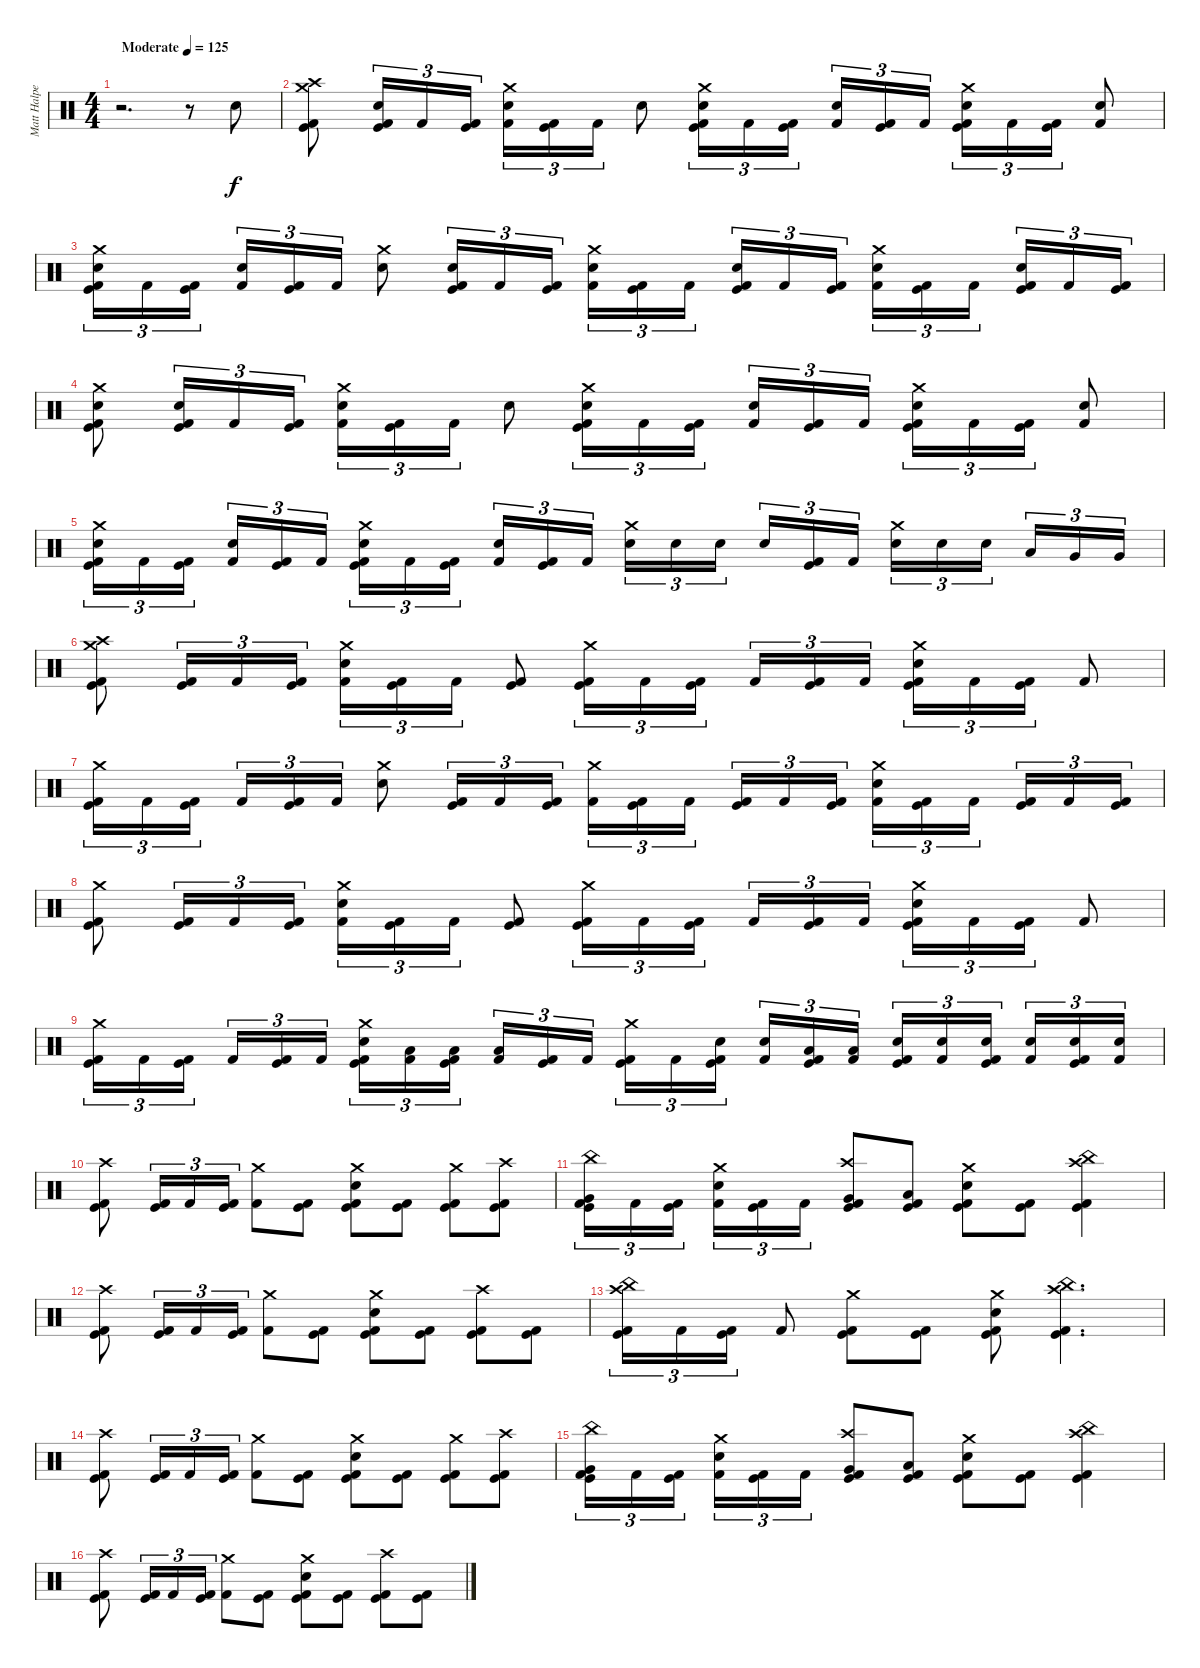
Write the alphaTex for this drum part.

\track ("Matt Halpern" "Matt Halpe") {instrument percussion}
\staff {score}
\articulation defaults
\ts (4 4)
\tempo (125 "Moderate")
\clef neutral
\ks c
r.2{d dy f} r.8 "Electric Snare (hit)".8 |
("Kick (hit) 2" "Kick (hit)" "Crash high (hit)" "Crash medium (hit)").8 ("Kick (hit) 2" "Kick (hit)" "Electric Snare (hit)").16{tu (3 2)} "Kick (hit) 2".16{tu (3 2)} ("Kick (hit) 2" "Kick (hit)").16{tu (3 2)} ("Kick (hit) 2" "Electric Snare (hit)" "Crash medium (hit)").16{tu (3 2)} ("Kick (hit) 2" "Kick (hit)").16{tu (3 2)} "Kick (hit) 2".16{tu (3 2)} "Electric Snare (hit)".8 ("Kick (hit) 2" "Kick (hit)" "Electric Snare (hit)" "Crash medium (hit)").16{tu (3 2)} "Kick (hit) 2".16{tu (3 2)} ("Kick (hit) 2" "Kick (hit)").16{tu (3 2) beam splitsecondary} ("Kick (hit) 2" "Electric Snare (hit)").16{tu (3 2)} ("Kick (hit) 2" "Kick (hit)").16{tu (3 2)} "Kick (hit) 2".16{tu (3 2)} ("Kick (hit) 2" "Kick (hit)" "Electric Snare (hit)" "Crash medium (hit)").16{tu (3 2)} "Kick (hit) 2".16{tu (3 2)} ("Kick (hit) 2" "Kick (hit)").16{tu (3 2)} ("Kick (hit) 2" "Electric Snare (hit)").8 |
("Kick (hit) 2" "Kick (hit)" "Electric Snare (hit)" "Crash medium (hit)").16{tu (3 2)} "Kick (hit) 2".16{tu (3 2)} ("Kick (hit) 2" "Kick (hit)").16{tu (3 2) beam splitsecondary} ("Kick (hit) 2" "Electric Snare (hit)").16{tu (3 2)} ("Kick (hit) 2" "Kick (hit)").16{tu (3 2)} "Kick (hit) 2".16{tu (3 2)} ("Electric Snare (hit)" "Crash medium (hit)").8 ("Kick (hit) 2" "Kick (hit)" "Electric Snare (hit)").16{tu (3 2)} "Kick (hit) 2".16{tu (3 2)} ("Kick (hit) 2" "Kick (hit)").16{tu (3 2)} ("Kick (hit) 2" "Electric Snare (hit)" "Crash medium (hit)").16{tu (3 2)} ("Kick (hit) 2" "Kick (hit)").16{tu (3 2)} "Kick (hit) 2".16{tu (3 2) beam splitsecondary} ("Kick (hit) 2" "Kick (hit)" "Electric Snare (hit)").16{tu (3 2)} "Kick (hit) 2".16{tu (3 2)} ("Kick (hit) 2" "Kick (hit)").16{tu (3 2)} ("Kick (hit) 2" "Electric Snare (hit)" "Crash medium (hit)").16{tu (3 2)} ("Kick (hit) 2" "Kick (hit)").16{tu (3 2)} "Kick (hit) 2".16{tu (3 2) beam splitsecondary} ("Kick (hit) 2" "Kick (hit)" "Electric Snare (hit)").16{tu (3 2)} "Kick (hit) 2".16{tu (3 2)} ("Kick (hit) 2" "Kick (hit)").16{tu (3 2)} |
("Kick (hit) 2" "Kick (hit)" "Electric Snare (hit)" "Crash medium (hit)").8 ("Kick (hit) 2" "Kick (hit)" "Electric Snare (hit)").16{tu (3 2)} "Kick (hit) 2".16{tu (3 2)} ("Kick (hit) 2" "Kick (hit)").16{tu (3 2)} ("Kick (hit) 2" "Electric Snare (hit)" "Crash medium (hit)").16{tu (3 2)} ("Kick (hit) 2" "Kick (hit)").16{tu (3 2)} "Kick (hit) 2".16{tu (3 2)} "Electric Snare (hit)".8 ("Kick (hit) 2" "Kick (hit)" "Electric Snare (hit)" "Crash medium (hit)").16{tu (3 2)} "Kick (hit) 2".16{tu (3 2)} ("Kick (hit) 2" "Kick (hit)").16{tu (3 2) beam splitsecondary} ("Kick (hit) 2" "Electric Snare (hit)").16{tu (3 2)} ("Kick (hit) 2" "Kick (hit)").16{tu (3 2)} "Kick (hit) 2".16{tu (3 2)} ("Kick (hit) 2" "Kick (hit)" "Electric Snare (hit)" "Crash medium (hit)").16{tu (3 2)} "Kick (hit) 2".16{tu (3 2)} ("Kick (hit) 2" "Kick (hit)").16{tu (3 2)} ("Kick (hit) 2" "Electric Snare (hit)").8 |
("Kick (hit) 2" "Kick (hit)" "Electric Snare (hit)" "Crash medium (hit)").16{tu (3 2)} "Kick (hit) 2".16{tu (3 2)} ("Kick (hit) 2" "Kick (hit)").16{tu (3 2) beam splitsecondary} ("Kick (hit) 2" "Electric Snare (hit)").16{tu (3 2)} ("Kick (hit) 2" "Kick (hit)").16{tu (3 2)} "Kick (hit) 2".16{tu (3 2)} ("Kick (hit) 2" "Kick (hit)" "Electric Snare (hit)" "Crash medium (hit)").16{tu (3 2)} "Kick (hit) 2".16{tu (3 2)} ("Kick (hit) 2" "Kick (hit)").16{tu (3 2) beam splitsecondary} ("Kick (hit) 2" "Electric Snare (hit)").16{tu (3 2)} ("Kick (hit) 2" "Kick (hit)").16{tu (3 2)} "Kick (hit) 2".16{tu (3 2)} ("Electric Snare (hit)" "Crash medium (hit)").16{tu (3 2)} "Electric Snare (hit)".16{tu (3 2)} "Electric Snare (hit)".16{tu (3 2) beam splitsecondary} "Electric Snare (hit)".16{tu (3 2)} ("Kick (hit) 2" "Kick (hit)").16{tu (3 2)} "Kick (hit) 2".16{tu (3 2)} ("Electric Snare (hit)" "Crash medium (hit)").16{tu (3 2)} "Electric Snare (hit)".16{tu (3 2)} "Electric Snare (hit)".16{tu (3 2) beam splitsecondary} "Low Tom (hit)".16{tu (3 2)} "Very Low Tom (hit)".16{tu (3 2)} "Very Low Tom (hit)".16{tu (3 2)} |
("Kick (hit) 2" "Kick (hit)" "Crash high (hit)" "Crash medium (hit)").8 ("Kick (hit) 2" "Kick (hit)").16{tu (3 2)} "Kick (hit) 2".16{tu (3 2)} ("Kick (hit) 2" "Kick (hit)").16{tu (3 2)} ("Kick (hit) 2" "Electric Snare (hit)" "Crash medium (hit)").16{tu (3 2)} ("Kick (hit) 2" "Kick (hit)").16{tu (3 2)} "Kick (hit) 2".16{tu (3 2)} ("Kick (hit) 2" "Kick (hit)").8 ("Kick (hit) 2" "Kick (hit)" "Crash medium (hit)").16{tu (3 2)} "Kick (hit) 2".16{tu (3 2)} ("Kick (hit) 2" "Kick (hit)").16{tu (3 2) beam splitsecondary} "Kick (hit) 2".16{tu (3 2)} ("Kick (hit) 2" "Kick (hit)").16{tu (3 2)} "Kick (hit) 2".16{tu (3 2)} ("Kick (hit) 2" "Kick (hit)" "Electric Snare (hit)" "Crash medium (hit)").16{tu (3 2)} "Kick (hit) 2".16{tu (3 2)} ("Kick (hit) 2" "Kick (hit)").16{tu (3 2)} "Kick (hit) 2".8 |
("Kick (hit) 2" "Kick (hit)" "Crash medium (hit)").16{tu (3 2)} "Kick (hit) 2".16{tu (3 2)} ("Kick (hit) 2" "Kick (hit)").16{tu (3 2) beam splitsecondary} "Kick (hit) 2".16{tu (3 2)} ("Kick (hit) 2" "Kick (hit)").16{tu (3 2)} "Kick (hit) 2".16{tu (3 2)} ("Electric Snare (hit)" "Crash medium (hit)").8 ("Kick (hit) 2" "Kick (hit)").16{tu (3 2)} "Kick (hit) 2".16{tu (3 2)} ("Kick (hit) 2" "Kick (hit)").16{tu (3 2)} ("Kick (hit) 2" "Crash medium (hit)").16{tu (3 2)} ("Kick (hit) 2" "Kick (hit)").16{tu (3 2)} "Kick (hit) 2".16{tu (3 2) beam splitsecondary} ("Kick (hit) 2" "Kick (hit)").16{tu (3 2)} "Kick (hit) 2".16{tu (3 2)} ("Kick (hit) 2" "Kick (hit)").16{tu (3 2)} ("Kick (hit) 2" "Electric Snare (hit)" "Crash medium (hit)").16{tu (3 2)} ("Kick (hit) 2" "Kick (hit)").16{tu (3 2)} "Kick (hit) 2".16{tu (3 2) beam splitsecondary} ("Kick (hit) 2" "Kick (hit)").16{tu (3 2)} "Kick (hit) 2".16{tu (3 2)} ("Kick (hit) 2" "Kick (hit)").16{tu (3 2)} |
("Kick (hit) 2" "Kick (hit)" "Crash medium (hit)").8 ("Kick (hit) 2" "Kick (hit)").16{tu (3 2)} "Kick (hit) 2".16{tu (3 2)} ("Kick (hit) 2" "Kick (hit)").16{tu (3 2)} ("Kick (hit) 2" "Electric Snare (hit)" "Crash medium (hit)").16{tu (3 2)} ("Kick (hit) 2" "Kick (hit)").16{tu (3 2)} "Kick (hit) 2".16{tu (3 2)} ("Kick (hit) 2" "Kick (hit)").8 ("Kick (hit) 2" "Kick (hit)" "Crash medium (hit)").16{tu (3 2)} "Kick (hit) 2".16{tu (3 2)} ("Kick (hit) 2" "Kick (hit)").16{tu (3 2) beam splitsecondary} "Kick (hit) 2".16{tu (3 2)} ("Kick (hit) 2" "Kick (hit)").16{tu (3 2)} "Kick (hit) 2".16{tu (3 2)} ("Kick (hit) 2" "Kick (hit)" "Electric Snare (hit)" "Crash medium (hit)").16{tu (3 2)} "Kick (hit) 2".16{tu (3 2)} ("Kick (hit) 2" "Kick (hit)").16{tu (3 2)} "Kick (hit) 2".8 |
("Kick (hit) 2" "Kick (hit)" "Crash medium (hit)").16{tu (3 2)} "Kick (hit) 2".16{tu (3 2)} ("Kick (hit) 2" "Kick (hit)").16{tu (3 2) beam splitsecondary} "Kick (hit) 2".16{tu (3 2)} ("Kick (hit) 2" "Kick (hit)").16{tu (3 2)} "Kick (hit) 2".16{tu (3 2)} ("Kick (hit) 2" "Kick (hit)" "Electric Snare (hit)" "Crash medium (hit)").16{tu (3 2)} ("Kick (hit) 2" "Low Tom (hit)").16{tu (3 2)} ("Kick (hit) 2" "Kick (hit)" "Low Tom (hit)").16{tu (3 2) beam splitsecondary} ("Kick (hit) 2" "Low Tom (hit)").16{tu (3 2)} ("Kick (hit) 2" "Kick (hit)").16{tu (3 2)} "Kick (hit) 2".16{tu (3 2)} ("Kick (hit) 2" "Kick (hit)" "Crash medium (hit)").16{tu (3 2)} "Kick (hit) 2".16{tu (3 2)} ("Kick (hit) 2" "Kick (hit)" "Electric Snare (hit)").16{tu (3 2) beam splitsecondary} ("Kick (hit) 2" "Electric Snare (hit)").16{tu (3 2)} ("Kick (hit) 2" "Kick (hit)" "Low Tom (hit)").16{tu (3 2)} ("Kick (hit) 2" "Low Tom (hit)").16{tu (3 2)} ("Kick (hit) 2" "Kick (hit)" "Electric Snare (hit)").16{tu (3 2)} ("Kick (hit) 2" "Electric Snare (hit)").16{tu (3 2)} ("Kick (hit) 2" "Kick (hit)" "Electric Snare (hit)").16{tu (3 2) beam splitsecondary} ("Kick (hit) 2" "Electric Snare (hit)").16{tu (3 2)} ("Kick (hit) 2" "Kick (hit)" "Electric Snare (hit)").16{tu (3 2)} ("Kick (hit) 2" "Electric Snare (hit)").16{tu (3 2)} |
("Kick (hit) 2" "Kick (hit)" "Crash high (hit)").8 ("Kick (hit) 2" "Kick (hit)").16{tu (3 2)} "Kick (hit) 2".16{tu (3 2)} ("Kick (hit) 2" "Kick (hit)").16{tu (3 2)} ("Kick (hit) 2" "Crash medium (hit)").8 ("Kick (hit) 2" "Kick (hit)").8 ("Kick (hit) 2" "Kick (hit)" "Electric Snare (hit)" "Crash medium (hit)").8 ("Kick (hit) 2" "Kick (hit)").8 ("Kick (hit) 2" "Kick (hit)" "Crash medium (hit)").8 ("Kick (hit) 2" "Kick (hit)" "Crash high (hit)").8 |
("Kick (hit) 2" "Kick (hit)" "Very Low Tom (hit)" "China (hit)").16{tu (3 2)} "Kick (hit) 2".16{tu (3 2)} ("Kick (hit) 2" "Kick (hit)").16{tu (3 2) beam splitsecondary} ("Kick (hit) 2" "Electric Snare (hit)" "Crash medium (hit)").16{tu (3 2)} ("Kick (hit) 2" "Kick (hit)").16{tu (3 2)} "Kick (hit) 2".16{tu (3 2)} ("Kick (hit) 2" "Kick (hit)" "Very Low Tom (hit)" "Crash high (hit)").8 ("Kick (hit) 2" "Kick (hit)" "Low Floor Tom (hit)").8 ("Kick (hit) 2" "Kick (hit)" "Electric Snare (hit)" "Crash medium (hit)").8 ("Kick (hit) 2" "Kick (hit)").8 ("Kick (hit) 2" "Kick (hit)" "China (hit)" "Crash high (hit)").4 |
("Kick (hit) 2" "Kick (hit)" "Crash high (hit)").8 ("Kick (hit) 2" "Kick (hit)").16{tu (3 2)} "Kick (hit) 2".16{tu (3 2)} ("Kick (hit) 2" "Kick (hit)").16{tu (3 2)} ("Kick (hit) 2" "Crash medium (hit)").8 ("Kick (hit) 2" "Kick (hit)").8 ("Kick (hit) 2" "Kick (hit)" "Electric Snare (hit)" "Crash medium (hit)").8 ("Kick (hit) 2" "Kick (hit)").8 ("Kick (hit) 2" "Kick (hit)" "Crash high (hit)").8 ("Kick (hit) 2" "Kick (hit)").8 |
("Kick (hit) 2" "Kick (hit)" "China (hit)" "Crash high (hit)").16{tu (3 2)} "Kick (hit) 2".16{tu (3 2)} ("Kick (hit) 2" "Kick (hit)").16{tu (3 2)} "Kick (hit) 2".8 ("Kick (hit) 2" "Kick (hit)" "Crash medium (hit)").8 ("Kick (hit) 2" "Kick (hit)").8 ("Kick (hit) 2" "Kick (hit)" "Electric Snare (hit)" "Crash medium (hit)").8 ("Kick (hit) 2" "Kick (hit)" "China (hit)" "Crash high (hit)").4{d} |
("Kick (hit) 2" "Kick (hit)" "Crash high (hit)").8 ("Kick (hit) 2" "Kick (hit)").16{tu (3 2)} "Kick (hit) 2".16{tu (3 2)} ("Kick (hit) 2" "Kick (hit)").16{tu (3 2)} ("Kick (hit) 2" "Crash medium (hit)").8 ("Kick (hit) 2" "Kick (hit)").8 ("Kick (hit) 2" "Kick (hit)" "Electric Snare (hit)" "Crash medium (hit)").8 ("Kick (hit) 2" "Kick (hit)").8 ("Kick (hit) 2" "Kick (hit)" "Crash medium (hit)").8 ("Kick (hit) 2" "Kick (hit)" "Crash high (hit)").8 |
("Kick (hit) 2" "Kick (hit)" "Very Low Tom (hit)" "China (hit)").16{tu (3 2)} "Kick (hit) 2".16{tu (3 2)} ("Kick (hit) 2" "Kick (hit)").16{tu (3 2) beam splitsecondary} ("Kick (hit) 2" "Electric Snare (hit)" "Crash medium (hit)").16{tu (3 2)} ("Kick (hit) 2" "Kick (hit)").16{tu (3 2)} "Kick (hit) 2".16{tu (3 2)} ("Kick (hit) 2" "Kick (hit)" "Very Low Tom (hit)" "Crash high (hit)").8 ("Kick (hit) 2" "Kick (hit)" "Low Floor Tom (hit)").8 ("Kick (hit) 2" "Kick (hit)" "Electric Snare (hit)" "Crash medium (hit)").8 ("Kick (hit) 2" "Kick (hit)").8 ("Kick (hit) 2" "Kick (hit)" "China (hit)" "Crash high (hit)").4 |
("Kick (hit) 2" "Kick (hit)" "Crash high (hit)").8 ("Kick (hit) 2" "Kick (hit)").16{tu (3 2)} "Kick (hit) 2".16{tu (3 2)} ("Kick (hit) 2" "Kick (hit)").16{tu (3 2)} ("Kick (hit) 2" "Crash medium (hit)").8 ("Kick (hit) 2" "Kick (hit)").8 ("Kick (hit) 2" "Kick (hit)" "Electric Snare (hit)" "Crash medium (hit)").8 ("Kick (hit) 2" "Kick (hit)").8 ("Kick (hit) 2" "Kick (hit)" "Crash high (hit)").8 ("Kick (hit) 2" "Kick (hit)").8
